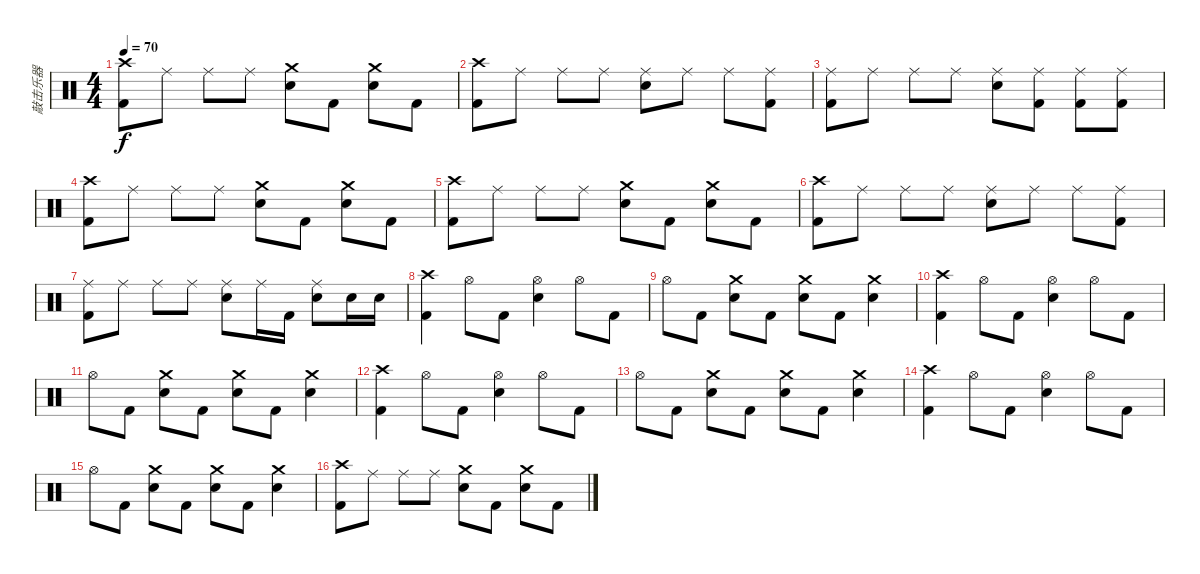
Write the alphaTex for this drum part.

\track ("敲击乐器" "敲击乐器") {instrument percussion}
\staff {score}
\articulation defaults
\ts (4 4)
\tempo 70
\clef neutral
\ks c
("Kick (hit) 2" "Crash high (hit)").8{dy f} "Ride (middle)".8 "Ride (middle)".8 "Ride (middle)".8 ("Snare (hit) 2" "Crash medium (hit)").8 "Kick (hit) 2".8 ("Snare (hit) 2" "Crash medium (hit)").8 "Kick (hit) 2".8 |
("Kick (hit) 2" "Crash high (hit)").8 "Ride (middle)".8 "Ride (middle)".8 "Ride (middle)".8 ("Snare (hit) 2" "Ride (middle)").8 "Ride (middle)".8 "Ride (middle)".8 ("Kick (hit) 2" "Ride (middle)").8 |
("Kick (hit) 2" "Ride (middle)").8 "Ride (middle)".8 "Ride (middle)".8 "Ride (middle)".8 ("Snare (hit) 2" "Ride (middle)").8 ("Kick (hit) 2" "Ride (middle)").8 ("Ride (middle)" "Kick (hit) 2").8 ("Kick (hit) 2" "Ride (middle)").8 |
("Kick (hit) 2" "Crash high (hit)").8 "Ride (middle)".8 "Ride (middle)".8 "Ride (middle)".8 ("Snare (hit) 2" "Crash medium (hit)").8 "Kick (hit) 2".8 ("Snare (hit) 2" "Crash medium (hit)").8 "Kick (hit) 2".8 |
("Kick (hit) 2" "Crash high (hit)").8 "Ride (middle)".8 "Ride (middle)".8 "Ride (middle)".8 ("Snare (hit) 2" "Crash medium (hit)").8 "Kick (hit) 2".8 ("Snare (hit) 2" "Crash medium (hit)").8 "Kick (hit) 2".8 |
("Kick (hit) 2" "Crash high (hit)").8 "Ride (middle)".8 "Ride (middle)".8 "Ride (middle)".8 ("Snare (hit) 2" "Ride (middle)").8 "Ride (middle)".8 "Ride (middle)".8 ("Kick (hit) 2" "Ride (middle)").8 |
("Kick (hit) 2" "Ride (middle)").8 "Ride (middle)".8 "Ride (middle)".8 "Ride (middle)".8 ("Snare (hit) 2" "Ride (middle)").8 "Ride (middle)".16 "Kick (hit) 2".16 ("Snare (hit) 2" "Ride (middle)").8 "Snare (hit) 2".16 "Snare (hit) 2".16 |
("Kick (hit) 2" "Crash high (hit)").4 "Hi-Hat (open)".8 "Kick (hit) 2".8 ("Hi-Hat (open)" "Snare (hit) 2").4 "Hi-Hat (open)".8 "Kick (hit) 2".8 |
"Hi-Hat (open)".8 "Kick (hit) 2".8 ("Snare (hit) 2" "Crash medium (hit)").8 "Kick (hit) 2".8 ("Snare (hit) 2" "Crash medium (hit)").8 "Kick (hit) 2".8 ("Snare (hit) 2" "Crash medium (hit)").4 |
("Kick (hit) 2" "Crash high (hit)").4 "Hi-Hat (open)".8 "Kick (hit) 2".8 ("Hi-Hat (open)" "Snare (hit) 2").4 "Hi-Hat (open)".8 "Kick (hit) 2".8 |
"Hi-Hat (open)".8 "Kick (hit) 2".8 ("Snare (hit) 2" "Crash medium (hit)").8 "Kick (hit) 2".8 ("Snare (hit) 2" "Crash medium (hit)").8 "Kick (hit) 2".8 ("Snare (hit) 2" "Crash medium (hit)").4 |
("Kick (hit) 2" "Crash high (hit)").4 "Hi-Hat (open)".8 "Kick (hit) 2".8 ("Hi-Hat (open)" "Snare (hit) 2").4 "Hi-Hat (open)".8 "Kick (hit) 2".8 |
"Hi-Hat (open)".8 "Kick (hit) 2".8 ("Snare (hit) 2" "Crash medium (hit)").8 "Kick (hit) 2".8 ("Snare (hit) 2" "Crash medium (hit)").8 "Kick (hit) 2".8 ("Snare (hit) 2" "Crash medium (hit)").4 |
("Kick (hit) 2" "Crash high (hit)").4 "Hi-Hat (open)".8 "Kick (hit) 2".8 ("Hi-Hat (open)" "Snare (hit) 2").4 "Hi-Hat (open)".8 "Kick (hit) 2".8 |
"Hi-Hat (open)".8 "Kick (hit) 2".8 ("Snare (hit) 2" "Crash medium (hit)").8 "Kick (hit) 2".8 ("Snare (hit) 2" "Crash medium (hit)").8 "Kick (hit) 2".8 ("Snare (hit) 2" "Crash medium (hit)").4 |
("Kick (hit) 2" "Crash high (hit)").8 "Ride (middle)".8 "Ride (middle)".8 "Ride (middle)".8 ("Snare (hit) 2" "Crash medium (hit)").8 "Kick (hit) 2".8 ("Snare (hit) 2" "Crash medium (hit)").8 "Kick (hit) 2".8
